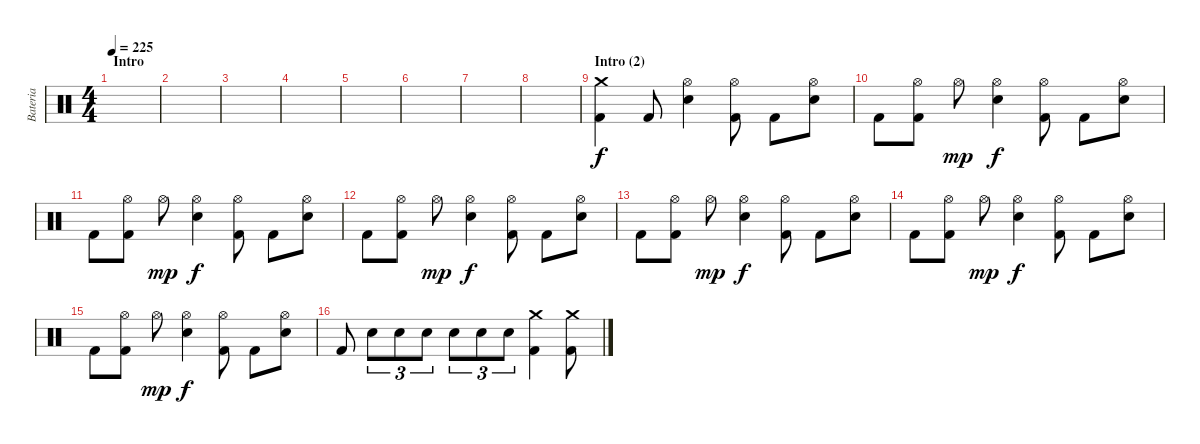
\track ("Bateria" "Bateria") {instrument percussion}
\staff {score}
\articulation defaults
\ts (4 4)
\section ("" "Intro ")
\tempo 225
\tempo 200
\tempo 225
\clef neutral
\ks c
|
|
|
|
|
|
|
|
\section ("" "Intro (2)")
("Crash medium (hit)" "Kick (hit) 2").4 "Kick (hit) 2".8 ("Hi-Hat (open)" "Snare (hit) 2").4 ("Hi-Hat (open)" "Kick (hit) 2").8 "Kick (hit) 2".8 ("Hi-Hat (open)" "Snare (hit) 2").8 |
"Kick (hit) 2".8 ("Hi-Hat (open)" "Kick (hit) 2").8 "Hi-Hat (open)".8{dy mp} ("Hi-Hat (open)" "Snare (hit) 2").4{dy f} ("Hi-Hat (open)" "Kick (hit) 2").8 "Kick (hit) 2".8 ("Hi-Hat (open)" "Snare (hit) 2").8 |
"Kick (hit) 2".8 ("Hi-Hat (open)" "Kick (hit) 2").8 "Hi-Hat (open)".8{dy mp} ("Hi-Hat (open)" "Snare (hit) 2").4{dy f} ("Hi-Hat (open)" "Kick (hit) 2").8 "Kick (hit) 2".8 ("Hi-Hat (open)" "Snare (hit) 2").8 |
"Kick (hit) 2".8 ("Hi-Hat (open)" "Kick (hit) 2").8 "Hi-Hat (open)".8{dy mp} ("Hi-Hat (open)" "Snare (hit) 2").4{dy f} ("Hi-Hat (open)" "Kick (hit) 2").8 "Kick (hit) 2".8 ("Hi-Hat (open)" "Snare (hit) 2").8 |
"Kick (hit) 2".8 ("Hi-Hat (open)" "Kick (hit) 2").8 "Hi-Hat (open)".8{dy mp} ("Hi-Hat (open)" "Snare (hit) 2").4{dy f} ("Hi-Hat (open)" "Kick (hit) 2").8 "Kick (hit) 2".8 ("Hi-Hat (open)" "Snare (hit) 2").8 |
"Kick (hit) 2".8 ("Hi-Hat (open)" "Kick (hit) 2").8 "Hi-Hat (open)".8{dy mp} ("Hi-Hat (open)" "Snare (hit) 2").4{dy f} ("Hi-Hat (open)" "Kick (hit) 2").8 "Kick (hit) 2".8 ("Hi-Hat (open)" "Snare (hit) 2").8 |
"Kick (hit) 2".8 ("Hi-Hat (open)" "Kick (hit) 2").8 "Hi-Hat (open)".8{dy mp} ("Hi-Hat (open)" "Snare (hit) 2").4{dy f} ("Hi-Hat (open)" "Kick (hit) 2").8 "Kick (hit) 2".8 ("Hi-Hat (open)" "Snare (hit) 2").8 |
"Kick (hit) 2".8 "Snare (hit) 2".8{tu (3 2)} "Snare (hit) 2".8{tu (3 2)} "Snare (hit) 2".8{tu (3 2)} "Snare (hit) 2".8{tu (3 2)} "Snare (hit) 2".8{tu (3 2)} "Snare (hit) 2".8{tu (3 2)} ("Crash medium (hit)" "Kick (hit) 2").4 ("Crash medium (hit)" "Kick (hit) 2").8
